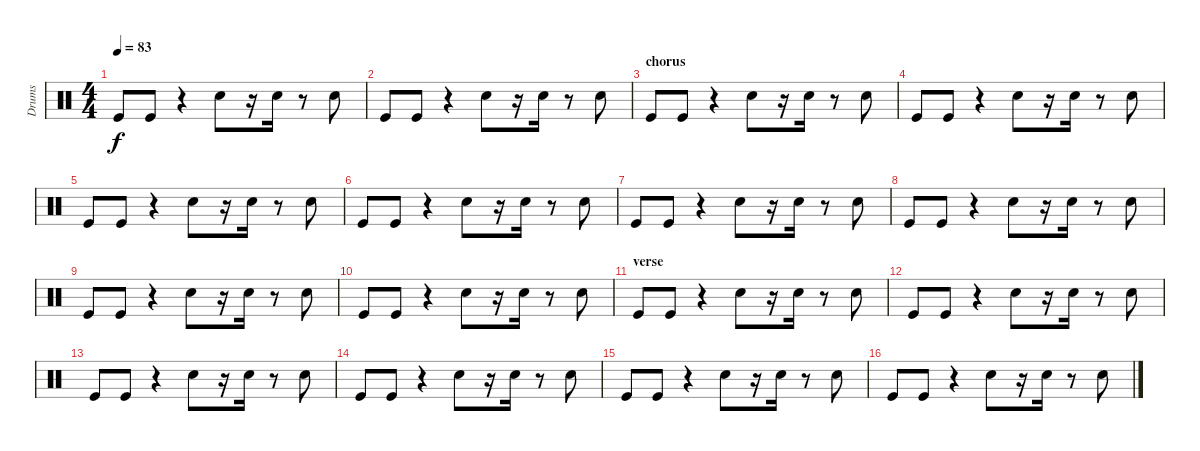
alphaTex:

\track ("Drums" "Drums") {instrument percussion}
\staff {score}
\articulation defaults
\ts (4 4)
\tempo 83
\clef neutral
\ks c "Kick (hit)".8{dy f} "Kick (hit)".8
r.4 "Snare (hit) 2".8 r.16 "Electric Snare (hit)".16 r.8 "Electric Snare (hit)".8 |
"Kick (hit)".8 "Kick (hit)".8 r.4 "Snare (hit) 2".8 r.16 "Electric Snare (hit)".16 r.8 "Electric Snare (hit)".8 |
\section ("" "chorus")
"Kick (hit)".8 "Kick (hit)".8 r.4 "Snare (hit) 2".8 r.16 "Electric Snare (hit)".16 r.8 "Electric Snare (hit)".8 |
"Kick (hit)".8 "Kick (hit)".8 r.4 "Snare (hit) 2".8 r.16 "Electric Snare (hit)".16 r.8 "Electric Snare (hit)".8 |
"Kick (hit)".8 "Kick (hit)".8 r.4 "Snare (hit) 2".8 r.16 "Electric Snare (hit)".16 r.8 "Electric Snare (hit)".8 |
"Kick (hit)".8 "Kick (hit)".8 r.4 "Snare (hit) 2".8 r.16 "Electric Snare (hit)".16 r.8 "Electric Snare (hit)".8 |
"Kick (hit)".8 "Kick (hit)".8 r.4 "Snare (hit) 2".8 r.16 "Electric Snare (hit)".16 r.8 "Electric Snare (hit)".8 |
"Kick (hit)".8 "Kick (hit)".8 r.4 "Snare (hit) 2".8 r.16 "Electric Snare (hit)".16 r.8 "Electric Snare (hit)".8 |
"Kick (hit)".8 "Kick (hit)".8 r.4 "Snare (hit) 2".8 r.16 "Electric Snare (hit)".16 r.8 "Electric Snare (hit)".8 |
"Kick (hit)".8 "Kick (hit)".8 r.4 "Snare (hit) 2".8 r.16 "Electric Snare (hit)".16 r.8 "Electric Snare (hit)".8 |
\section ("" "verse")
"Kick (hit)".8 "Kick (hit)".8 r.4 "Snare (hit) 2".8 r.16 "Electric Snare (hit)".16 r.8 "Electric Snare (hit)".8 |
"Kick (hit)".8 "Kick (hit)".8 r.4 "Snare (hit) 2".8 r.16 "Electric Snare (hit)".16 r.8 "Electric Snare (hit)".8 |
"Kick (hit)".8 "Kick (hit)".8 r.4 "Snare (hit) 2".8 r.16 "Electric Snare (hit)".16 r.8 "Electric Snare (hit)".8 |
"Kick (hit)".8 "Kick (hit)".8 r.4 "Snare (hit) 2".8 r.16 "Electric Snare (hit)".16 r.8 "Electric Snare (hit)".8 |
"Kick (hit)".8 "Kick (hit)".8 r.4 "Snare (hit) 2".8 r.16 "Electric Snare (hit)".16 r.8 "Electric Snare (hit)".8 |
"Kick (hit)".8 "Kick (hit)".8 r.4 "Snare (hit) 2".8 r.16 "Electric Snare (hit)".16 r.8 "Electric Snare (hit)".8
